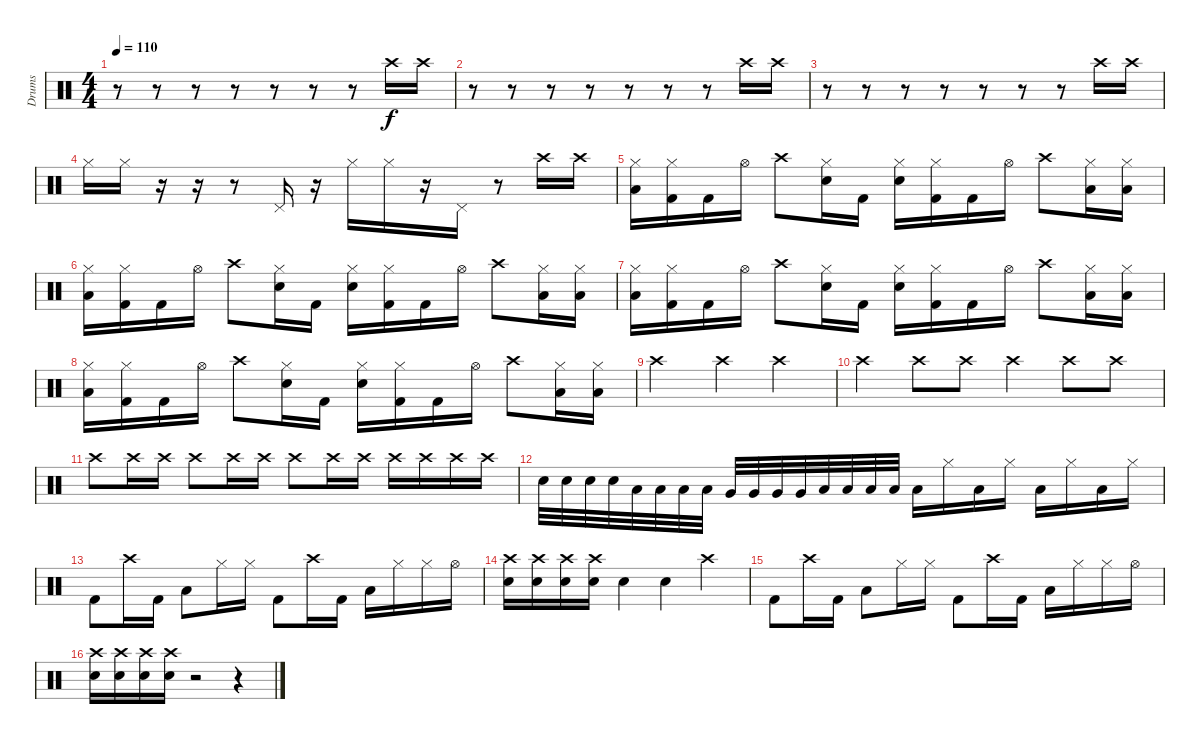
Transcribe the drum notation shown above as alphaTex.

\track ("Drums" "Drums") {instrument percussion}
\staff {score}
\articulation defaults
\ts (4 4)
\tempo 110
\clef neutral
\ks c
r.8{dy f} r.8 r.8 r.8 r.8 r.8 r.8 "Crash high (hit)".16 "Crash high (hit)".16 |
r.8 r.8 r.8 r.8 r.8 r.8 r.8 "Crash high (hit)".16 "Crash high (hit)".16 |
r.8 r.8 r.8 r.8 r.8 r.8 r.8 "Crash high (hit)".16 "Crash high (hit)".16 |
"Hi-Hat (closed)".16 "Hi-Hat (closed)".16 r.16 r.16 r.8 "Pedal Hi-Hat (hit)".16 r.16 "Hi-Hat (closed)".16 "Hi-Hat (closed)".16 r.16 "Pedal Hi-Hat (hit)".16 r.8 "Crash high (hit)".16 "Crash high (hit)".16 |
("Hi-Hat (closed)" "Low Tom (hit)").16 ("Hi-Hat (closed)" "Kick (hit) 2").16 "Kick (hit) 2".16 "Hi-Hat (open)".16 "Crash high (hit)".8 ("Hi-Hat (closed)" "Snare (hit) 2").16 "Kick (hit) 2".16 ("Hi-Hat (closed)" "Snare (hit) 2").16 ("Hi-Hat (closed)" "Kick (hit) 2").16 "Kick (hit) 2".16 "Hi-Hat (open)".16 "Crash high (hit)".8 ("Hi-Hat (closed)" "Low Tom (hit)").16 ("Hi-Hat (closed)" "Low Tom (hit)").16 |
("Hi-Hat (closed)" "Low Tom (hit)").16 ("Hi-Hat (closed)" "Kick (hit) 2").16 "Kick (hit) 2".16 "Hi-Hat (open)".16 "Crash high (hit)".8 ("Hi-Hat (closed)" "Snare (hit) 2").16 "Kick (hit) 2".16 ("Hi-Hat (closed)" "Snare (hit) 2").16 ("Hi-Hat (closed)" "Kick (hit) 2").16 "Kick (hit) 2".16 "Hi-Hat (open)".16 "Crash high (hit)".8 ("Hi-Hat (closed)" "Low Tom (hit)").16 ("Hi-Hat (closed)" "Low Tom (hit)").16 |
("Hi-Hat (closed)" "Low Tom (hit)").16 ("Hi-Hat (closed)" "Kick (hit) 2").16 "Kick (hit) 2".16 "Hi-Hat (open)".16 "Crash high (hit)".8 ("Hi-Hat (closed)" "Snare (hit) 2").16 "Kick (hit) 2".16 ("Hi-Hat (closed)" "Snare (hit) 2").16 ("Hi-Hat (closed)" "Kick (hit) 2").16 "Kick (hit) 2".16 "Hi-Hat (open)".16 "Crash high (hit)".8 ("Hi-Hat (closed)" "Low Tom (hit)").16 ("Hi-Hat (closed)" "Low Tom (hit)").16 |
("Hi-Hat (closed)" "Low Tom (hit)").16 ("Hi-Hat (closed)" "Kick (hit) 2").16 "Kick (hit) 2".16 "Hi-Hat (open)".16 "Crash high (hit)".8 ("Hi-Hat (closed)" "Snare (hit) 2").16 "Kick (hit) 2".16 ("Hi-Hat (closed)" "Snare (hit) 2").16 ("Hi-Hat (closed)" "Kick (hit) 2").16 "Kick (hit) 2".16 "Hi-Hat (open)".16 "Crash high (hit)".8 ("Hi-Hat (closed)" "Low Tom (hit)").16 ("Hi-Hat (closed)" "Low Tom (hit)").16 |
"Crash high (hit)".2 "Crash high (hit)".4 "Crash high (hit)".4 |
"Crash high (hit)".4 "Crash high (hit)".8 "Crash high (hit)".8 "Crash high (hit)".4 "Crash high (hit)".8 "Crash high (hit)".8 |
"Crash high (hit)".8 "Crash high (hit)".16 "Crash high (hit)".16 "Crash high (hit)".8 "Crash high (hit)".16 "Crash high (hit)".16 "Crash high (hit)".8 "Crash high (hit)".16 "Crash high (hit)".16 "Crash high (hit)".16 "Crash high (hit)".16 "Crash high (hit)".16 "Crash high (hit)".16 |
"Snare (hit) 2".32 "Snare (hit) 2".32 "Snare (hit) 2".32 "Snare (hit) 2".32 "Low Floor Tom (hit)".32 "Low Floor Tom (hit)".32 "Low Floor Tom (hit)".32 "Low Floor Tom (hit)".32 "Very Low Tom (hit)".32 "Very Low Tom (hit)".32 "Very Low Tom (hit)".32 "Very Low Tom (hit)".32 "Low Tom (hit)".32 "Low Tom (hit)".32 "Low Tom (hit)".32 "Low Tom (hit)".32 "Low Tom (hit)".16 "Hi-Hat (closed)".16 "Low Tom (hit)".16 "Hi-Hat (closed)".16 "Low Tom (hit)".16 "Hi-Hat (closed)".16 "Low Tom (hit)".16 "Hi-Hat (closed)".16 |
"Kick (hit) 2".8 "Crash high (hit)".16 "Kick (hit) 2".16 "Low Tom (hit)".8 "Hi-Hat (closed)".16 "Hi-Hat (closed)".16 "Kick (hit) 2".8 "Crash high (hit)".16 "Kick (hit) 2".16 "Low Tom (hit)".16 "Hi-Hat (closed)".16 "Hi-Hat (closed)".16 "Hi-Hat (open)".16 |
("Crash high (hit)" "Electric Snare (hit)").16 ("Crash high (hit)" "Electric Snare (hit)").16 ("Crash high (hit)" "Electric Snare (hit)").16 ("Crash high (hit)" "Electric Snare (hit)").16 "Electric Snare (hit)".4 "Snare (hit) 2".4 "Crash high (hit)".4 |
"Kick (hit) 2".8 "Crash high (hit)".16 "Kick (hit) 2".16 "Low Tom (hit)".8 "Hi-Hat (closed)".16 "Hi-Hat (closed)".16 "Kick (hit) 2".8 "Crash high (hit)".16 "Kick (hit) 2".16 "Low Tom (hit)".16 "Hi-Hat (closed)".16 "Hi-Hat (closed)".16 "Hi-Hat (open)".16 |
("Crash high (hit)" "Electric Snare (hit)").16 ("Crash high (hit)" "Electric Snare (hit)").16 ("Crash high (hit)" "Electric Snare (hit)").16 ("Crash high (hit)" "Electric Snare (hit)").16 r.2 r.4
